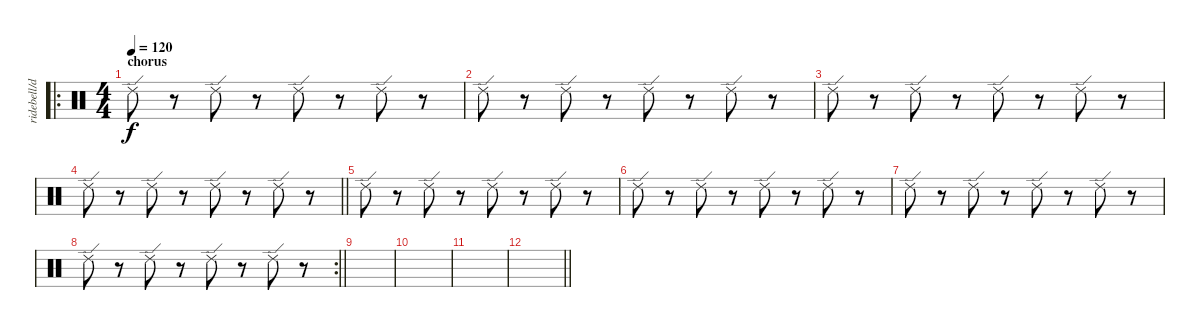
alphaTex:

\track ("ridebell/drum" "ridebell/d") {instrument percussion}
\staff {score}
\articulation defaults
\ro
\ts (4 4)
\section ("" "chorus")
\tempo 120
\clef neutral
\ks c "Ride (edge) 2".8{dy f}
r.8 "Ride (edge) 2".8 r.8 "Ride (edge) 2".8 r.8 "Ride (edge) 2".8 r.8 |
"Ride (edge) 2".8 r.8 "Ride (edge) 2".8 r.8 "Ride (edge) 2".8 r.8 "Ride (edge) 2".8 r.8 |
"Ride (edge) 2".8 r.8 "Ride (edge) 2".8 r.8 "Ride (edge) 2".8 r.8 "Ride (edge) 2".8 r.8 |
\barLineRight lightlight "Ride (edge) 2".8
r.8 "Ride (edge) 2".8 r.8 "Ride (edge) 2".8 r.8 "Ride (edge) 2".8 r.8 |
"Ride (edge) 2".8 r.8 "Ride (edge) 2".8 r.8 "Ride (edge) 2".8 r.8 "Ride (edge) 2".8 r.8 |
"Ride (edge) 2".8 r.8 "Ride (edge) 2".8 r.8 "Ride (edge) 2".8 r.8 "Ride (edge) 2".8 r.8 |
"Ride (edge) 2".8 r.8 "Ride (edge) 2".8 r.8 "Ride (edge) 2".8 r.8 "Ride (edge) 2".8 r.8 |
\rc 2
\barLineRight lightlight "Ride (edge) 2".8
r.8 "Ride (edge) 2".8 r.8 "Ride (edge) 2".8 r.8 "Ride (edge) 2".8 r.8 |
|
|
|
\barLineRight lightlight
